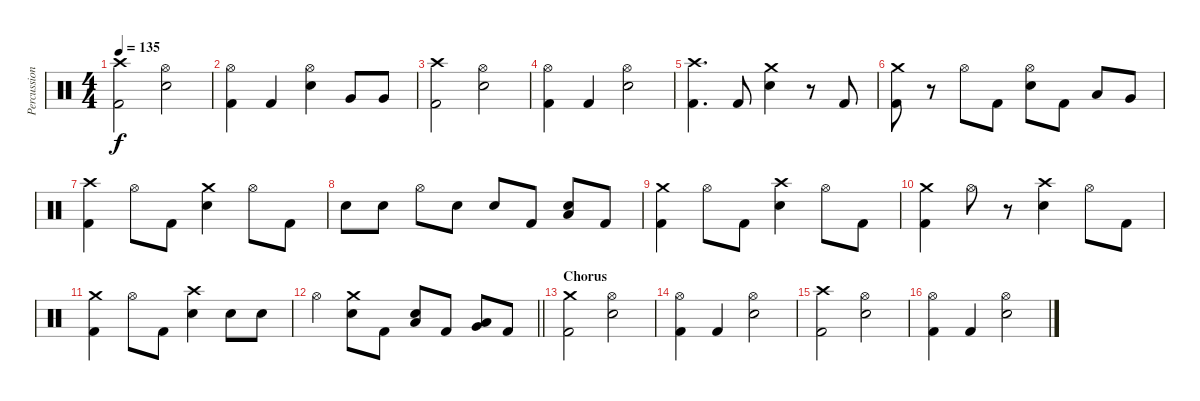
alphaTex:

\track ("Percussion" "Percussion") {instrument percussion}
\staff {score}
\articulation defaults
\ts (4 4)
\tempo 135
\clef neutral
\ks c
("Crash high (hit)" "Kick (hit) 2").2{dy f} ("Hi-Hat (open)" "Electric Snare (hit)").2 |
("Hi-Hat (open)" "Kick (hit) 2").4 "Kick (hit) 2".4 ("Hi-Hat (open)" "Electric Snare (hit)").4 "Very Low Tom (hit)".8 "Very Low Tom (hit)".8 |
("Crash high (hit)" "Kick (hit) 2").2 ("Hi-Hat (open)" "Electric Snare (hit)").2 |
("Hi-Hat (open)" "Kick (hit) 2").4 "Kick (hit) 2".4 ("Hi-Hat (open)" "Electric Snare (hit)").2 |
("Crash high (hit)" "Kick (hit) 2").4{d} "Kick (hit) 2".8 ("Crash medium (hit)" "Electric Snare (hit)").4 r.8 "Kick (hit) 2".8 |
("Crash medium (hit)" "Kick (hit) 2").8 r.8 "Hi-Hat (open)".8 "Kick (hit) 2".8 ("Hi-Hat (open)" "Electric Snare (hit)").8 "Kick (hit) 2".8 "Low Tom (hit)".8 "Very Low Tom (hit)".8 |
("Crash high (hit)" "Kick (hit) 2").4 "Hi-Hat (open)".8 "Kick (hit) 2".8 ("Crash medium (hit)" "Electric Snare (hit)").4 "Hi-Hat (open)".8 "Kick (hit) 2".8 |
"Electric Snare (hit)".8 "Electric Snare (hit)".8 "Hi-Hat (open)".8 "Electric Snare (hit)".8 "Electric Snare (hit)".8 "Kick (hit) 2".8 ("Electric Snare (hit)" "Low Tom (hit)").8 "Kick (hit) 2".8 |
("Crash medium (hit)" "Kick (hit) 2").4 "Hi-Hat (open)".8 "Kick (hit) 2".8 ("Crash high (hit)" "Electric Snare (hit)").4 "Hi-Hat (open)".8 "Kick (hit) 2".8 |
("Crash medium (hit)" "Kick (hit) 2").4 "Hi-Hat (open)".8 r.8 ("Crash high (hit)" "Electric Snare (hit)").4 "Hi-Hat (open)".8 "Kick (hit) 2".8 |
("Crash medium (hit)" "Kick (hit) 2").4 "Hi-Hat (open)".8 "Kick (hit) 2".8 ("Crash high (hit)" "Electric Snare (hit)").4 "Electric Snare (hit)".8 "Electric Snare (hit)".8 |
\barLineRight lightlight "Hi-Hat (open)".4
("Crash medium (hit)" "Electric Snare (hit)").8 "Kick (hit) 2".8 ("Electric Snare (hit)" "Low Tom (hit)").8 "Kick (hit) 2".8 ("Very Low Tom (hit)" "Low Tom (hit)").8 "Kick (hit) 2".8 |
\section ("" "Chorus")
("Crash medium (hit)" "Kick (hit) 2").2 ("Hi-Hat (open)" "Electric Snare (hit)").2 |
("Hi-Hat (open)" "Kick (hit) 2").4 "Kick (hit) 2".4 ("Hi-Hat (open)" "Electric Snare (hit)").2 |
("Crash high (hit)" "Kick (hit) 2").2 ("Hi-Hat (open)" "Electric Snare (hit)").2 |
("Hi-Hat (open)" "Kick (hit) 2").4 "Kick (hit) 2".4 ("Hi-Hat (open)" "Electric Snare (hit)").2
